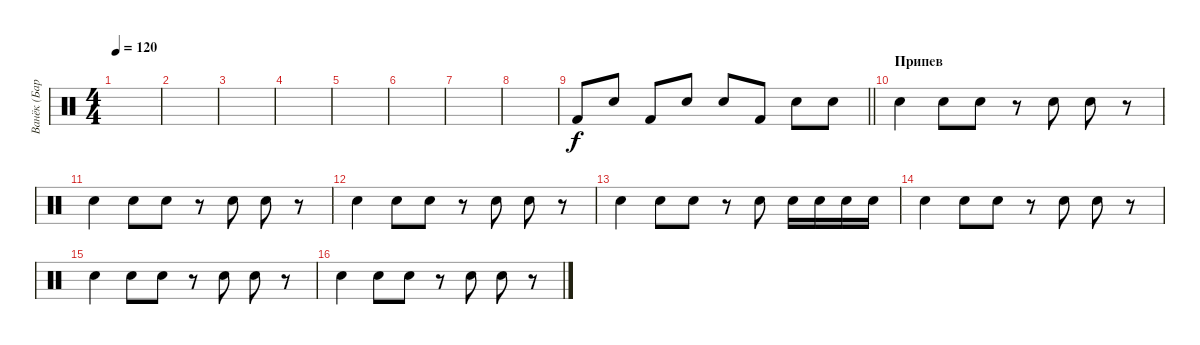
\track ("Ванёк (Барабанщик)" "Ванёк (Бар") {instrument percussion}
\staff {score}
\articulation defaults
\ts (4 4)
\tempo 120
\clef neutral
\ks c
|
|
|
|
|
|
|
|
\barLineRight lightlight "Kick (hit) 2".8 "Electric Snare (hit)".8 "Kick (hit) 2".8 "Electric Snare (hit)".8 "Electric Snare (hit)".8 "Kick (hit) 2".8 "Electric Snare (hit)".8 "Electric Snare (hit)".8
|
\section ("" "Припев")
"Electric Snare (hit)".4 "Electric Snare (hit)".8 "Electric Snare (hit)".8 r.8 "Electric Snare (hit)".8 "Electric Snare (hit)".8 r.8 |
"Electric Snare (hit)".4 "Electric Snare (hit)".8 "Electric Snare (hit)".8 r.8 "Electric Snare (hit)".8 "Electric Snare (hit)".8 r.8 |
"Electric Snare (hit)".4 "Electric Snare (hit)".8 "Electric Snare (hit)".8 r.8 "Electric Snare (hit)".8 "Electric Snare (hit)".8 r.8 |
"Electric Snare (hit)".4 "Electric Snare (hit)".8 "Electric Snare (hit)".8 r.8 "Electric Snare (hit)".8 "Electric Snare (hit)".16 "Electric Snare (hit)".16 "Electric Snare (hit)".16 "Electric Snare (hit)".16 |
"Electric Snare (hit)".4 "Electric Snare (hit)".8 "Electric Snare (hit)".8 r.8 "Electric Snare (hit)".8 "Electric Snare (hit)".8 r.8 |
"Electric Snare (hit)".4 "Electric Snare (hit)".8 "Electric Snare (hit)".8 r.8 "Electric Snare (hit)".8 "Electric Snare (hit)".8 r.8 |
"Electric Snare (hit)".4 "Electric Snare (hit)".8 "Electric Snare (hit)".8 r.8 "Electric Snare (hit)".8 "Electric Snare (hit)".8 r.8
